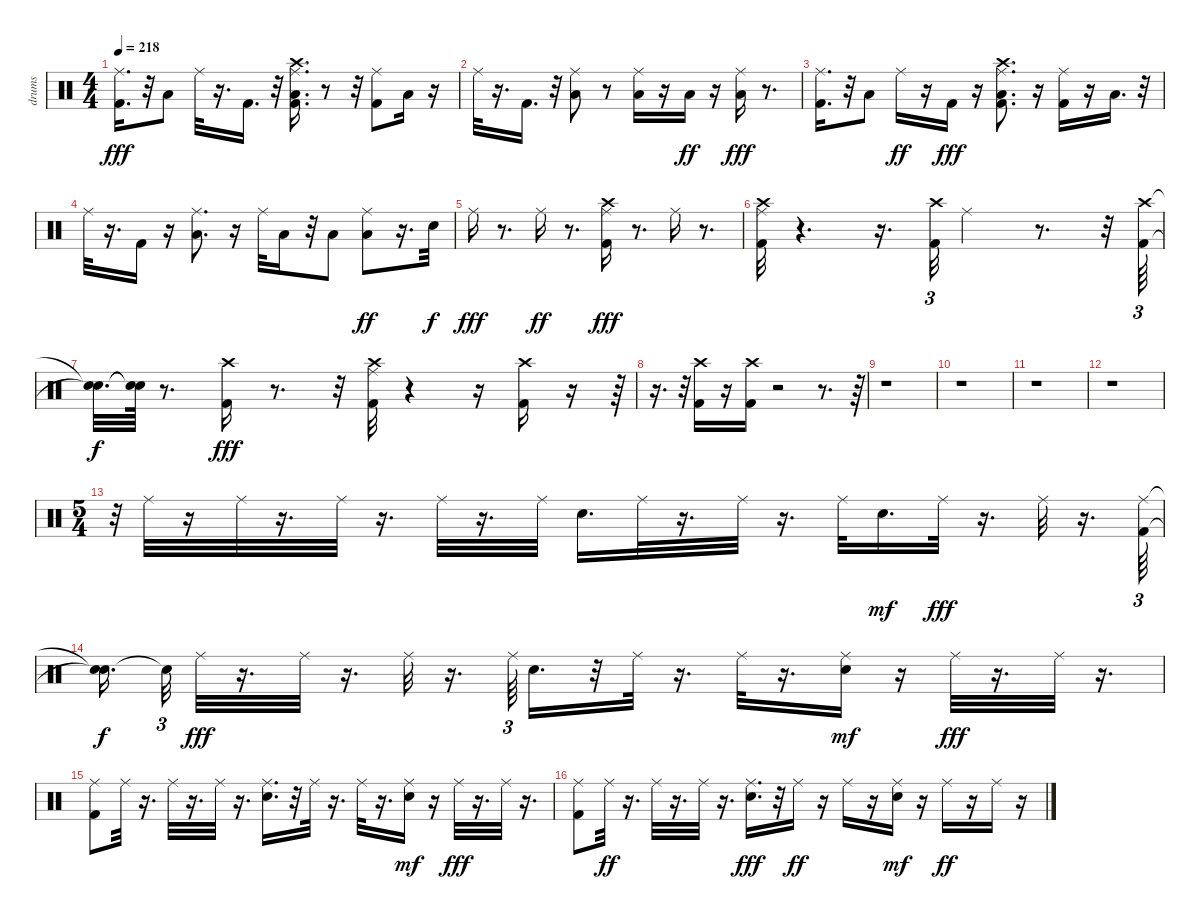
\track ("drums               " "drums     ") {instrument percussion}
\staff {score}
\articulation defaults
\ts (4 4)
\tempo 218
\clef neutral
\ks c
("Kick (hit) 2" "Ride (middle)").16{d dy fff} r.32 "Low Tom (hit)".8 "Ride (middle)".32 r.16{d} "Kick (hit) 2".16{d} r.32 ("Kick (hit) 2" "Ride (middle)" "Low Tom (hit)" "Crash high (hit)").16{d} r.8 r.32 ("Ride (middle)" "Kick (hit) 2").8 "Low Tom (hit)".16 r.16 |
"Ride (middle)".32 r.16{d} "Kick (hit) 2".16{d} r.32 ("Low Tom (hit)" "Ride (middle)").8 r.8 ("Ride (middle)" "Low Floor Tom (hit)").16 r.16 "Low Floor Tom (hit)".16{dy ff} r.16 ("Ride (middle)" "Low Floor Tom (hit)").16{dy fff} r.8{d} |
("Ride (middle)" "Kick (hit) 2").16{d} r.32 "Low Tom (hit)".8 "Ride (middle)".16{dy ff} r.16 "Kick (hit) 2".16{dy fff} r.16 ("Ride (middle)" "Low Tom (hit)" "Kick (hit) 2" "Crash high (hit)").8{d} r.16 ("Ride (middle)" "Kick (hit) 2").16 r.16 "Low Tom (hit)".16{d} r.32 |
"Ride (middle)".32 r.16{d} "Kick (hit) 2".16 r.16 ("Ride (middle)" "Low Tom (hit)").8{d} r.16 "Ride (middle)".32 "Low Floor Tom (hit)".16 r.32 "Low Floor Tom (hit)".8 ("Ride (middle)" "Low Floor Tom (hit)").8{dy ff} r.16{d} "Electric Snare (hit)".32{dy f} |
"Ride (middle)".16{dy fff} r.8{d} "Ride (middle)".16{dy ff} r.8{d} ("Kick (hit) 2" "Ride (middle)" "Crash high (hit)").16{dy fff} r.8{d} "Ride (middle)".16 r.8{d} |
("Kick (hit) 2" "Ride (middle)" "Crash high (hit)").32 r.4{d} r.16{d} ("Kick (hit) 2" "Crash high (hit)").32{tu (3 2)} "Ride (middle)".4 r.8{d} r.32 ("Kick (hit) 2" "Crash high (hit)").64{tu (3 2)} |
("Snare (hit)"{t} "Snare (hit)"{t}).32{d dy f} ("Snare (hit)"{t} "Snare (hit)"{t}).64 r.8{d} ("Kick (hit) 2" "Crash high (hit)").16{dy fff} r.8{d} r.32 ("Kick (hit) 2" "Crash high (hit)" "Ride (middle)").32 r.4 r.16 ("Kick (hit) 2" "Crash high (hit)").16 r.16 r.64{tu (3 2)} |
r.16{d} r.32{tu (3 2)} ("Kick (hit) 2" "Crash high (hit)").16 r.16 ("Kick (hit) 2" "Crash high (hit)").16 r.2 r.8{d} r.64{tu (3 2)} |
r.1 |
r.1 |
r.1 |
r.1 |
\ts (5 4)
r.32{tu (3 2)} "Ride (middle)".32 r.16 "Ride (middle)".32 r.16{d} "Ride (middle)".32 r.16{d} "Ride (middle)".32 r.16{d} "Ride (middle)".32 "Snare (hit) 2".16{d} "Ride (middle)".32 r.16{d} "Ride (middle)".32 r.16{d} "Ride (middle)".32 "Snare (hit) 2".16{d dy mf} "Ride (middle)".32{dy fff} r.16{d} "Ride (middle)".32 r.16{d} ("Kick (hit) 2" "Ride (middle)").64{tu (3 2)} |
("Snare (hit)"{t} "Snare (hit)"{t}).16{d dy f} "Snare (hit)"{t}.32{tu (3 2)} "Ride (middle)".32{dy fff} r.16{d} "Ride (middle)".32 r.16{d} "Ride (middle)".32 r.16{d} "Ride (middle)".64{tu (3 2)} "Snare (hit) 2".16{d} r.32 "Ride (middle)".32 r.16{d} "Ride (middle)".32 r.16{d} ("Ride (middle)" "Snare (hit) 2").16{dy mf} r.16 "Ride (middle)".32{dy fff} r.16{d} "Ride (middle)".32 r.16{d} |
("Kick (hit) 2" "Ride (middle)").8 "Ride (middle)".32 r.16{d} "Ride (middle)".32 r.16{d} "Ride (middle)".32 r.16{d} ("Ride (middle)" "Snare (hit) 2").16{d} r.32 "Ride (middle)".32 r.16{d} "Ride (middle)".32 r.16{d} ("Ride (middle)" "Snare (hit) 2").16{dy mf} r.16 "Ride (middle)".32{dy fff} r.16{d} "Ride (middle)".32 r.16{d} |
("Kick (hit) 2" "Ride (middle)").8 "Ride (middle)".32{dy ff} r.16{d} "Ride (middle)".32 r.16{d} "Ride (middle)".32 r.16{d} ("Ride (middle)" "Snare (hit) 2").16{d dy fff} r.32 "Ride (middle)".16{dy ff} r.16 "Ride (middle)".16 r.16 ("Ride (middle)" "Snare (hit) 2").16{dy mf} r.16 "Ride (middle)".16{dy ff} r.16 "Ride (middle)".16 r.16
